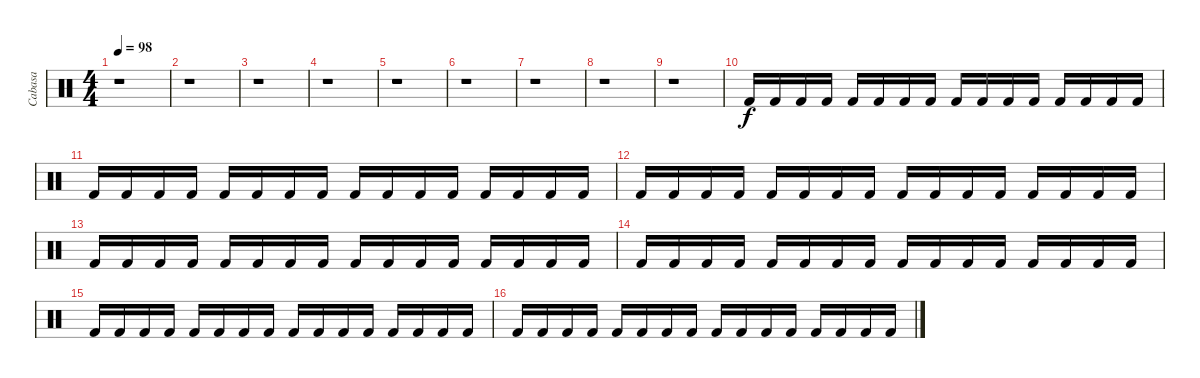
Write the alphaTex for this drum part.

\track ("Cabasa" "Cabasa") {instrument percussion}
\staff {score}
\articulation defaults
\ts (4 4)
\tempo 98
\clef neutral
\ks c
r.1{dy f} |
r.1 |
r.1 |
r.1 |
r.1 |
r.1 |
r.1 |
r.1 |
r.1 |
"Kick (hit) 2".16 "Kick (hit) 2".16 "Kick (hit) 2".16 "Kick (hit) 2".16 "Kick (hit) 2".16 "Kick (hit) 2".16 "Kick (hit) 2".16 "Kick (hit) 2".16 "Kick (hit) 2".16 "Kick (hit) 2".16 "Kick (hit) 2".16 "Kick (hit) 2".16 "Kick (hit) 2".16 "Kick (hit) 2".16 "Kick (hit) 2".16 "Kick (hit) 2".16 |
"Kick (hit) 2".16 "Kick (hit) 2".16 "Kick (hit) 2".16 "Kick (hit) 2".16 "Kick (hit) 2".16 "Kick (hit) 2".16 "Kick (hit) 2".16 "Kick (hit) 2".16 "Kick (hit) 2".16 "Kick (hit) 2".16 "Kick (hit) 2".16 "Kick (hit) 2".16 "Kick (hit) 2".16 "Kick (hit) 2".16 "Kick (hit) 2".16 "Kick (hit) 2".16 |
"Kick (hit) 2".16 "Kick (hit) 2".16 "Kick (hit) 2".16 "Kick (hit) 2".16 "Kick (hit) 2".16 "Kick (hit) 2".16 "Kick (hit) 2".16 "Kick (hit) 2".16 "Kick (hit) 2".16 "Kick (hit) 2".16 "Kick (hit) 2".16 "Kick (hit) 2".16 "Kick (hit) 2".16 "Kick (hit) 2".16 "Kick (hit) 2".16 "Kick (hit) 2".16 |
"Kick (hit) 2".16 "Kick (hit) 2".16 "Kick (hit) 2".16 "Kick (hit) 2".16 "Kick (hit) 2".16 "Kick (hit) 2".16 "Kick (hit) 2".16 "Kick (hit) 2".16 "Kick (hit) 2".16 "Kick (hit) 2".16 "Kick (hit) 2".16 "Kick (hit) 2".16 "Kick (hit) 2".16 "Kick (hit) 2".16 "Kick (hit) 2".16 "Kick (hit) 2".16 |
"Kick (hit) 2".16 "Kick (hit) 2".16 "Kick (hit) 2".16 "Kick (hit) 2".16 "Kick (hit) 2".16 "Kick (hit) 2".16 "Kick (hit) 2".16 "Kick (hit) 2".16 "Kick (hit) 2".16 "Kick (hit) 2".16 "Kick (hit) 2".16 "Kick (hit) 2".16 "Kick (hit) 2".16 "Kick (hit) 2".16 "Kick (hit) 2".16 "Kick (hit) 2".16 |
"Kick (hit) 2".16 "Kick (hit) 2".16 "Kick (hit) 2".16 "Kick (hit) 2".16 "Kick (hit) 2".16 "Kick (hit) 2".16 "Kick (hit) 2".16 "Kick (hit) 2".16 "Kick (hit) 2".16 "Kick (hit) 2".16 "Kick (hit) 2".16 "Kick (hit) 2".16 "Kick (hit) 2".16 "Kick (hit) 2".16 "Kick (hit) 2".16 "Kick (hit) 2".16 |
"Kick (hit) 2".16 "Kick (hit) 2".16 "Kick (hit) 2".16 "Kick (hit) 2".16 "Kick (hit) 2".16 "Kick (hit) 2".16 "Kick (hit) 2".16 "Kick (hit) 2".16 "Kick (hit) 2".16 "Kick (hit) 2".16 "Kick (hit) 2".16 "Kick (hit) 2".16 "Kick (hit) 2".16 "Kick (hit) 2".16 "Kick (hit) 2".16 "Kick (hit) 2".16
